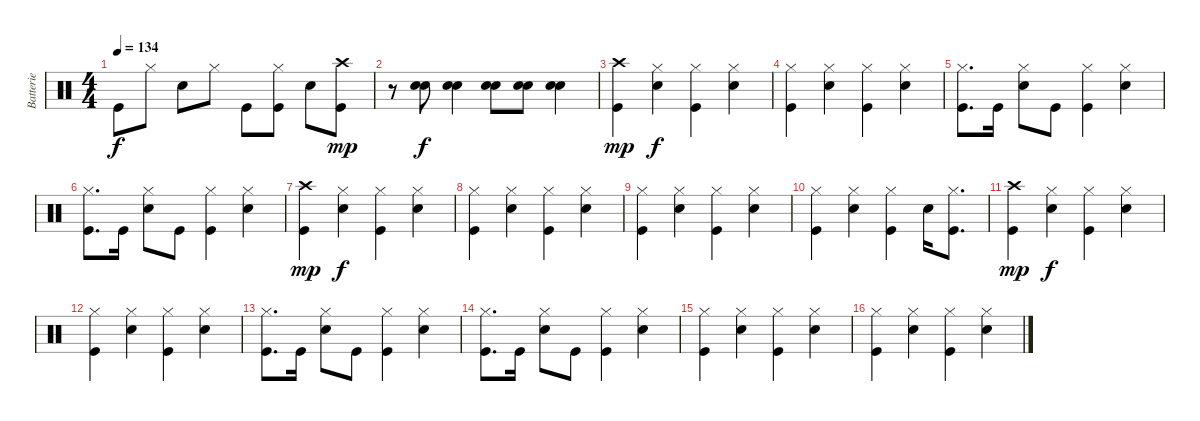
\track ("Batterie" "Batterie") {instrument percussion}
\staff {score}
\articulation defaults
\ts (4 4)
\tempo 134
\clef neutral
\ks c "Kick (hit)".8{dy f} "Hi-Hat (closed)".8 "Snare (hit) 2".8 "Hi-Hat (closed)".8 "Kick (hit)".8
("Hi-Hat (closed)" "Kick (hit)").8 "Snare (hit) 2".8 ("Crash high (hit)" "Kick (hit)").8{dy mp} |
r.8 ("Snare (hit) 2" "Snare (hit) 2").8{dy f} ("Snare (hit) 2" "Snare (hit) 2").4 ("Snare (hit) 2" "Snare (hit) 2").8 ("Snare (hit) 2" "Snare (hit) 2").8 ("Snare (hit) 2" "Snare (hit) 2").4 |
("Crash high (hit)" "Kick (hit)").4{dy mp} ("Hi-Hat (closed)" "Snare (hit) 2").4{dy f} ("Hi-Hat (closed)" "Kick (hit)").4 ("Hi-Hat (closed)" "Snare (hit) 2").4 |
("Hi-Hat (closed)" "Kick (hit)").4 ("Hi-Hat (closed)" "Snare (hit) 2").4 ("Hi-Hat (closed)" "Kick (hit)").4 ("Hi-Hat (closed)" "Snare (hit) 2").4 |
("Hi-Hat (closed)" "Kick (hit)").8{d} "Kick (hit)".16 ("Hi-Hat (closed)" "Snare (hit) 2").8 "Kick (hit)".8 ("Hi-Hat (closed)" "Kick (hit)").4 ("Hi-Hat (closed)" "Snare (hit) 2").4 |
("Hi-Hat (closed)" "Kick (hit)").8{d} "Kick (hit)".16 ("Hi-Hat (closed)" "Snare (hit) 2").8 "Kick (hit)".8 ("Hi-Hat (closed)" "Kick (hit)").4 ("Hi-Hat (closed)" "Snare (hit) 2").4 |
("Crash high (hit)" "Kick (hit)").4{dy mp} ("Hi-Hat (closed)" "Snare (hit) 2").4{dy f} ("Hi-Hat (closed)" "Kick (hit)").4 ("Hi-Hat (closed)" "Snare (hit) 2").4 |
("Hi-Hat (closed)" "Kick (hit)").4 ("Hi-Hat (closed)" "Snare (hit) 2").4 ("Hi-Hat (closed)" "Kick (hit)").4 ("Hi-Hat (closed)" "Snare (hit) 2").4 |
("Hi-Hat (closed)" "Kick (hit)").4 ("Hi-Hat (closed)" "Snare (hit) 2").4 ("Hi-Hat (closed)" "Kick (hit)").4 ("Hi-Hat (closed)" "Snare (hit) 2").4 |
("Hi-Hat (closed)" "Kick (hit)").4 ("Hi-Hat (closed)" "Snare (hit) 2").4 ("Hi-Hat (closed)" "Kick (hit)").4 "Snare (hit) 2".16 ("Hi-Hat (closed)" "Kick (hit)").8{d} |
("Crash high (hit)" "Kick (hit)").4{dy mp} ("Hi-Hat (closed)" "Snare (hit) 2").4{dy f} ("Hi-Hat (closed)" "Kick (hit)").4 ("Hi-Hat (closed)" "Snare (hit) 2").4 |
("Hi-Hat (closed)" "Kick (hit)").4 ("Hi-Hat (closed)" "Snare (hit) 2").4 ("Hi-Hat (closed)" "Kick (hit)").4 ("Hi-Hat (closed)" "Snare (hit) 2").4 |
("Hi-Hat (closed)" "Kick (hit)").8{d} "Kick (hit)".16 ("Hi-Hat (closed)" "Snare (hit) 2").8 "Kick (hit)".8 ("Hi-Hat (closed)" "Kick (hit)").4 ("Hi-Hat (closed)" "Snare (hit) 2").4 |
("Hi-Hat (closed)" "Kick (hit)").8{d} "Kick (hit)".16 ("Hi-Hat (closed)" "Snare (hit) 2").8 "Kick (hit)".8 ("Hi-Hat (closed)" "Kick (hit)").4 ("Hi-Hat (closed)" "Snare (hit) 2").4 |
("Hi-Hat (closed)" "Kick (hit)").4 ("Hi-Hat (closed)" "Snare (hit) 2").4 ("Hi-Hat (closed)" "Kick (hit)").4 ("Hi-Hat (closed)" "Snare (hit) 2").4 |
("Hi-Hat (closed)" "Kick (hit)").4 ("Hi-Hat (closed)" "Snare (hit) 2").4 ("Hi-Hat (closed)" "Kick (hit)").4 ("Hi-Hat (closed)" "Snare (hit) 2").4
